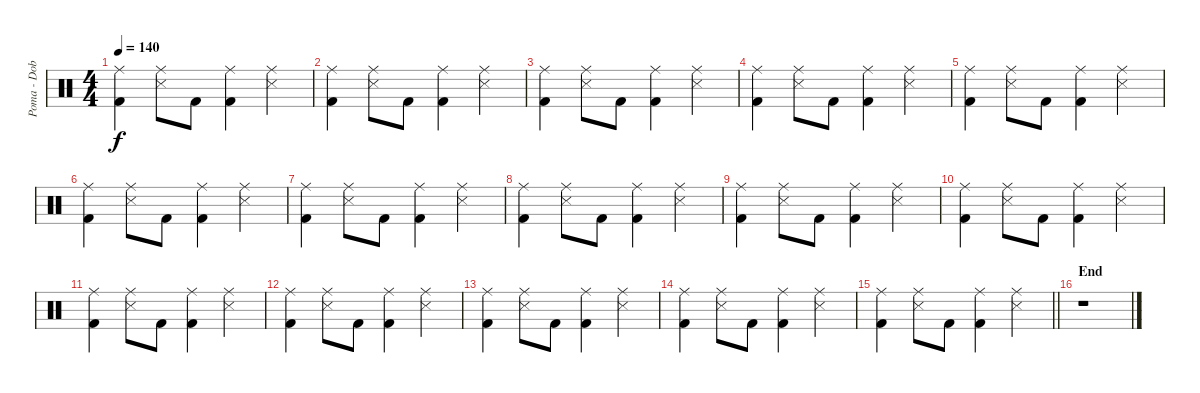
\track ("Poma - Dob" "Poma - Dob") {instrument percussion}
\staff {score}
\articulation defaults
\ts (4 4)
\tempo 140
\clef neutral
\ks c
("Ride (middle)" "Kick (hit) 2").4{dy f} ("Ride (middle)" "Snare (side stick) 3").8 "Kick (hit) 2".8 ("Ride (middle)" "Kick (hit) 2").4 ("Ride (middle)" "Snare (side stick) 3").4 |
("Ride (middle)" "Kick (hit) 2").4 ("Ride (middle)" "Snare (side stick) 3").8 "Kick (hit) 2".8 ("Ride (middle)" "Kick (hit) 2").4 ("Ride (middle)" "Snare (side stick) 3").4 |
("Ride (middle)" "Kick (hit) 2").4 ("Ride (middle)" "Snare (side stick) 3").8 "Kick (hit) 2".8 ("Ride (middle)" "Kick (hit) 2").4 ("Ride (middle)" "Snare (side stick) 3").4 |
("Ride (middle)" "Kick (hit) 2").4 ("Ride (middle)" "Snare (side stick) 3").8 "Kick (hit) 2".8 ("Ride (middle)" "Kick (hit) 2").4 ("Ride (middle)" "Snare (side stick) 3").4 |
("Ride (middle)" "Kick (hit) 2").4 ("Ride (middle)" "Snare (side stick) 3").8 "Kick (hit) 2".8 ("Ride (middle)" "Kick (hit) 2").4 ("Ride (middle)" "Snare (side stick) 3").4 |
("Ride (middle)" "Kick (hit) 2").4 ("Ride (middle)" "Snare (side stick) 3").8 "Kick (hit) 2".8 ("Ride (middle)" "Kick (hit) 2").4 ("Ride (middle)" "Snare (side stick) 3").4 |
("Ride (middle)" "Kick (hit) 2").4 ("Ride (middle)" "Snare (side stick) 3").8 "Kick (hit) 2".8 ("Ride (middle)" "Kick (hit) 2").4 ("Ride (middle)" "Snare (side stick) 3").4 |
("Ride (middle)" "Kick (hit) 2").4 ("Ride (middle)" "Snare (side stick) 3").8 "Kick (hit) 2".8 ("Ride (middle)" "Kick (hit) 2").4 ("Ride (middle)" "Snare (side stick) 3").4 |
("Ride (middle)" "Kick (hit) 2").4 ("Ride (middle)" "Snare (side stick) 3").8 "Kick (hit) 2".8 ("Ride (middle)" "Kick (hit) 2").4 ("Ride (middle)" "Snare (side stick) 3").4 |
("Ride (middle)" "Kick (hit) 2").4 ("Ride (middle)" "Snare (side stick) 3").8 "Kick (hit) 2".8 ("Ride (middle)" "Kick (hit) 2").4 ("Ride (middle)" "Snare (side stick) 3").4 |
("Ride (middle)" "Kick (hit) 2").4 ("Ride (middle)" "Snare (side stick) 3").8 "Kick (hit) 2".8 ("Ride (middle)" "Kick (hit) 2").4 ("Ride (middle)" "Snare (side stick) 3").4 |
("Ride (middle)" "Kick (hit) 2").4 ("Ride (middle)" "Snare (side stick) 3").8 "Kick (hit) 2".8 ("Ride (middle)" "Kick (hit) 2").4 ("Ride (middle)" "Snare (side stick) 3").4 |
("Ride (middle)" "Kick (hit) 2").4 ("Ride (middle)" "Snare (side stick) 3").8 "Kick (hit) 2".8 ("Ride (middle)" "Kick (hit) 2").4 ("Ride (middle)" "Snare (side stick) 3").4 |
("Ride (middle)" "Kick (hit) 2").4 ("Ride (middle)" "Snare (side stick) 3").8 "Kick (hit) 2".8 ("Ride (middle)" "Kick (hit) 2").4 ("Ride (middle)" "Snare (side stick) 3").4 |
\barLineRight lightlight
("Ride (middle)" "Kick (hit) 2").4 ("Ride (middle)" "Snare (side stick) 3").8 "Kick (hit) 2".8 ("Ride (middle)" "Kick (hit) 2").4 ("Ride (middle)" "Snare (side stick) 3").4 |
\section ("" "End")
r.1
